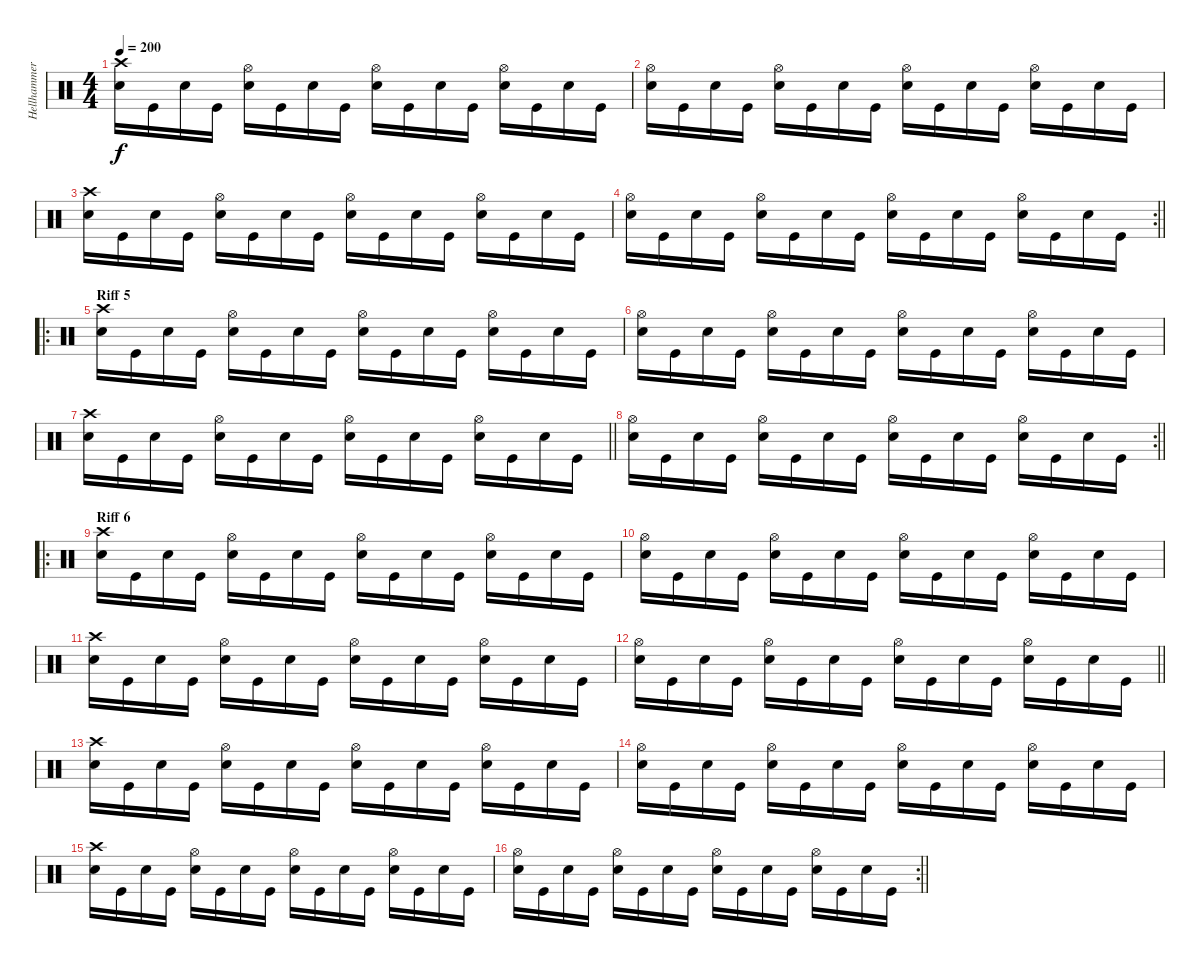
\track ("Hellhammer" "Hellhammer") {instrument percussion}
\staff {score}
\articulation defaults
\ts (4 4)
\tempo 200
\clef neutral
\ks c
("Crash high (hit)" "Snare (hit) 2").16{dy f} "Kick (hit)".16 "Snare (hit) 2".16 "Kick (hit)".16 ("Hi-Hat (open)" "Snare (hit) 2").16 "Kick (hit)".16 "Snare (hit) 2".16 "Kick (hit)".16 ("Hi-Hat (open)" "Snare (hit) 2").16 "Kick (hit)".16 "Snare (hit) 2".16 "Kick (hit)".16 ("Hi-Hat (open)" "Snare (hit) 2").16 "Kick (hit)".16 "Snare (hit) 2".16 "Kick (hit)".16 |
("Hi-Hat (open)" "Snare (hit) 2").16 "Kick (hit)".16 "Snare (hit) 2".16 "Kick (hit)".16 ("Hi-Hat (open)" "Snare (hit) 2").16 "Kick (hit)".16 "Snare (hit) 2".16 "Kick (hit)".16 ("Hi-Hat (open)" "Snare (hit) 2").16 "Kick (hit)".16 "Snare (hit) 2".16 "Kick (hit)".16 ("Hi-Hat (open)" "Snare (hit) 2").16 "Kick (hit)".16 "Snare (hit) 2".16 "Kick (hit)".16 |
("Crash high (hit)" "Snare (hit) 2").16 "Kick (hit)".16 "Snare (hit) 2".16 "Kick (hit)".16 ("Hi-Hat (open)" "Snare (hit) 2").16 "Kick (hit)".16 "Snare (hit) 2".16 "Kick (hit)".16 ("Hi-Hat (open)" "Snare (hit) 2").16 "Kick (hit)".16 "Snare (hit) 2".16 "Kick (hit)".16 ("Hi-Hat (open)" "Snare (hit) 2").16 "Kick (hit)".16 "Snare (hit) 2".16 "Kick (hit)".16 |
\rc 2
\barLineRight lightlight
("Hi-Hat (open)" "Snare (hit) 2").16 "Kick (hit)".16 "Snare (hit) 2".16 "Kick (hit)".16 ("Hi-Hat (open)" "Snare (hit) 2").16 "Kick (hit)".16 "Snare (hit) 2".16 "Kick (hit)".16 ("Hi-Hat (open)" "Snare (hit) 2").16 "Kick (hit)".16 "Snare (hit) 2".16 "Kick (hit)".16 ("Hi-Hat (open)" "Snare (hit) 2").16 "Kick (hit)".16 "Snare (hit) 2".16 "Kick (hit)".16 |
\ro
\section ("" "Riff 5")
("Crash high (hit)" "Snare (hit) 2").16 "Kick (hit)".16 "Snare (hit) 2".16 "Kick (hit)".16 ("Hi-Hat (open)" "Snare (hit) 2").16 "Kick (hit)".16 "Snare (hit) 2".16 "Kick (hit)".16 ("Hi-Hat (open)" "Snare (hit) 2").16 "Kick (hit)".16 "Snare (hit) 2".16 "Kick (hit)".16 ("Hi-Hat (open)" "Snare (hit) 2").16 "Kick (hit)".16 "Snare (hit) 2".16 "Kick (hit)".16 |
("Hi-Hat (open)" "Snare (hit) 2").16 "Kick (hit)".16 "Snare (hit) 2".16 "Kick (hit)".16 ("Hi-Hat (open)" "Snare (hit) 2").16 "Kick (hit)".16 "Snare (hit) 2".16 "Kick (hit)".16 ("Hi-Hat (open)" "Snare (hit) 2").16 "Kick (hit)".16 "Snare (hit) 2".16 "Kick (hit)".16 ("Hi-Hat (open)" "Snare (hit) 2").16 "Kick (hit)".16 "Snare (hit) 2".16 "Kick (hit)".16 |
\barLineRight lightlight
("Crash high (hit)" "Snare (hit) 2").16 "Kick (hit)".16 "Snare (hit) 2".16 "Kick (hit)".16 ("Hi-Hat (open)" "Snare (hit) 2").16 "Kick (hit)".16 "Snare (hit) 2".16 "Kick (hit)".16 ("Hi-Hat (open)" "Snare (hit) 2").16 "Kick (hit)".16 "Snare (hit) 2".16 "Kick (hit)".16 ("Hi-Hat (open)" "Snare (hit) 2").16 "Kick (hit)".16 "Snare (hit) 2".16 "Kick (hit)".16 |
\rc 2
\barLineRight lightlight
("Hi-Hat (open)" "Snare (hit) 2").16 "Kick (hit)".16 "Snare (hit) 2".16 "Kick (hit)".16 ("Hi-Hat (open)" "Snare (hit) 2").16 "Kick (hit)".16 "Snare (hit) 2".16 "Kick (hit)".16 ("Hi-Hat (open)" "Snare (hit) 2").16 "Kick (hit)".16 "Snare (hit) 2".16 "Kick (hit)".16 ("Hi-Hat (open)" "Snare (hit) 2").16 "Kick (hit)".16 "Snare (hit) 2".16 "Kick (hit)".16 |
\ro
\section ("" "Riff 6")
("Crash high (hit)" "Snare (hit) 2").16 "Kick (hit)".16 "Snare (hit) 2".16 "Kick (hit)".16 ("Hi-Hat (open)" "Snare (hit) 2").16 "Kick (hit)".16 "Snare (hit) 2".16 "Kick (hit)".16 ("Hi-Hat (open)" "Snare (hit) 2").16 "Kick (hit)".16 "Snare (hit) 2".16 "Kick (hit)".16 ("Hi-Hat (open)" "Snare (hit) 2").16 "Kick (hit)".16 "Snare (hit) 2".16 "Kick (hit)".16 |
("Hi-Hat (open)" "Snare (hit) 2").16 "Kick (hit)".16 "Snare (hit) 2".16 "Kick (hit)".16 ("Hi-Hat (open)" "Snare (hit) 2").16 "Kick (hit)".16 "Snare (hit) 2".16 "Kick (hit)".16 ("Hi-Hat (open)" "Snare (hit) 2").16 "Kick (hit)".16 "Snare (hit) 2".16 "Kick (hit)".16 ("Hi-Hat (open)" "Snare (hit) 2").16 "Kick (hit)".16 "Snare (hit) 2".16 "Kick (hit)".16 |
("Crash high (hit)" "Snare (hit) 2").16 "Kick (hit)".16 "Snare (hit) 2".16 "Kick (hit)".16 ("Hi-Hat (open)" "Snare (hit) 2").16 "Kick (hit)".16 "Snare (hit) 2".16 "Kick (hit)".16 ("Hi-Hat (open)" "Snare (hit) 2").16 "Kick (hit)".16 "Snare (hit) 2".16 "Kick (hit)".16 ("Hi-Hat (open)" "Snare (hit) 2").16 "Kick (hit)".16 "Snare (hit) 2".16 "Kick (hit)".16 |
\barLineRight lightlight
("Hi-Hat (open)" "Snare (hit) 2").16 "Kick (hit)".16 "Snare (hit) 2".16 "Kick (hit)".16 ("Hi-Hat (open)" "Snare (hit) 2").16 "Kick (hit)".16 "Snare (hit) 2".16 "Kick (hit)".16 ("Hi-Hat (open)" "Snare (hit) 2").16 "Kick (hit)".16 "Snare (hit) 2".16 "Kick (hit)".16 ("Hi-Hat (open)" "Snare (hit) 2").16 "Kick (hit)".16 "Snare (hit) 2".16 "Kick (hit)".16 |
("Crash high (hit)" "Snare (hit) 2").16 "Kick (hit)".16 "Snare (hit) 2".16 "Kick (hit)".16 ("Hi-Hat (open)" "Snare (hit) 2").16 "Kick (hit)".16 "Snare (hit) 2".16 "Kick (hit)".16 ("Hi-Hat (open)" "Snare (hit) 2").16 "Kick (hit)".16 "Snare (hit) 2".16 "Kick (hit)".16 ("Hi-Hat (open)" "Snare (hit) 2").16 "Kick (hit)".16 "Snare (hit) 2".16 "Kick (hit)".16 |
("Hi-Hat (open)" "Snare (hit) 2").16 "Kick (hit)".16 "Snare (hit) 2".16 "Kick (hit)".16 ("Hi-Hat (open)" "Snare (hit) 2").16 "Kick (hit)".16 "Snare (hit) 2".16 "Kick (hit)".16 ("Hi-Hat (open)" "Snare (hit) 2").16 "Kick (hit)".16 "Snare (hit) 2".16 "Kick (hit)".16 ("Hi-Hat (open)" "Snare (hit) 2").16 "Kick (hit)".16 "Snare (hit) 2".16 "Kick (hit)".16 |
("Crash high (hit)" "Snare (hit) 2").16 "Kick (hit)".16 "Snare (hit) 2".16 "Kick (hit)".16 ("Hi-Hat (open)" "Snare (hit) 2").16 "Kick (hit)".16 "Snare (hit) 2".16 "Kick (hit)".16 ("Hi-Hat (open)" "Snare (hit) 2").16 "Kick (hit)".16 "Snare (hit) 2".16 "Kick (hit)".16 ("Hi-Hat (open)" "Snare (hit) 2").16 "Kick (hit)".16 "Snare (hit) 2".16 "Kick (hit)".16 |
\rc 2
\barLineRight lightlight
("Hi-Hat (open)" "Snare (hit) 2").16 "Kick (hit)".16 "Snare (hit) 2".16 "Kick (hit)".16 ("Hi-Hat (open)" "Snare (hit) 2").16 "Kick (hit)".16 "Snare (hit) 2".16 "Kick (hit)".16 ("Hi-Hat (open)" "Snare (hit) 2").16 "Kick (hit)".16 "Snare (hit) 2".16 "Kick (hit)".16 ("Hi-Hat (open)" "Snare (hit) 2").16 "Kick (hit)".16 "Snare (hit) 2".16 "Kick (hit)".16
